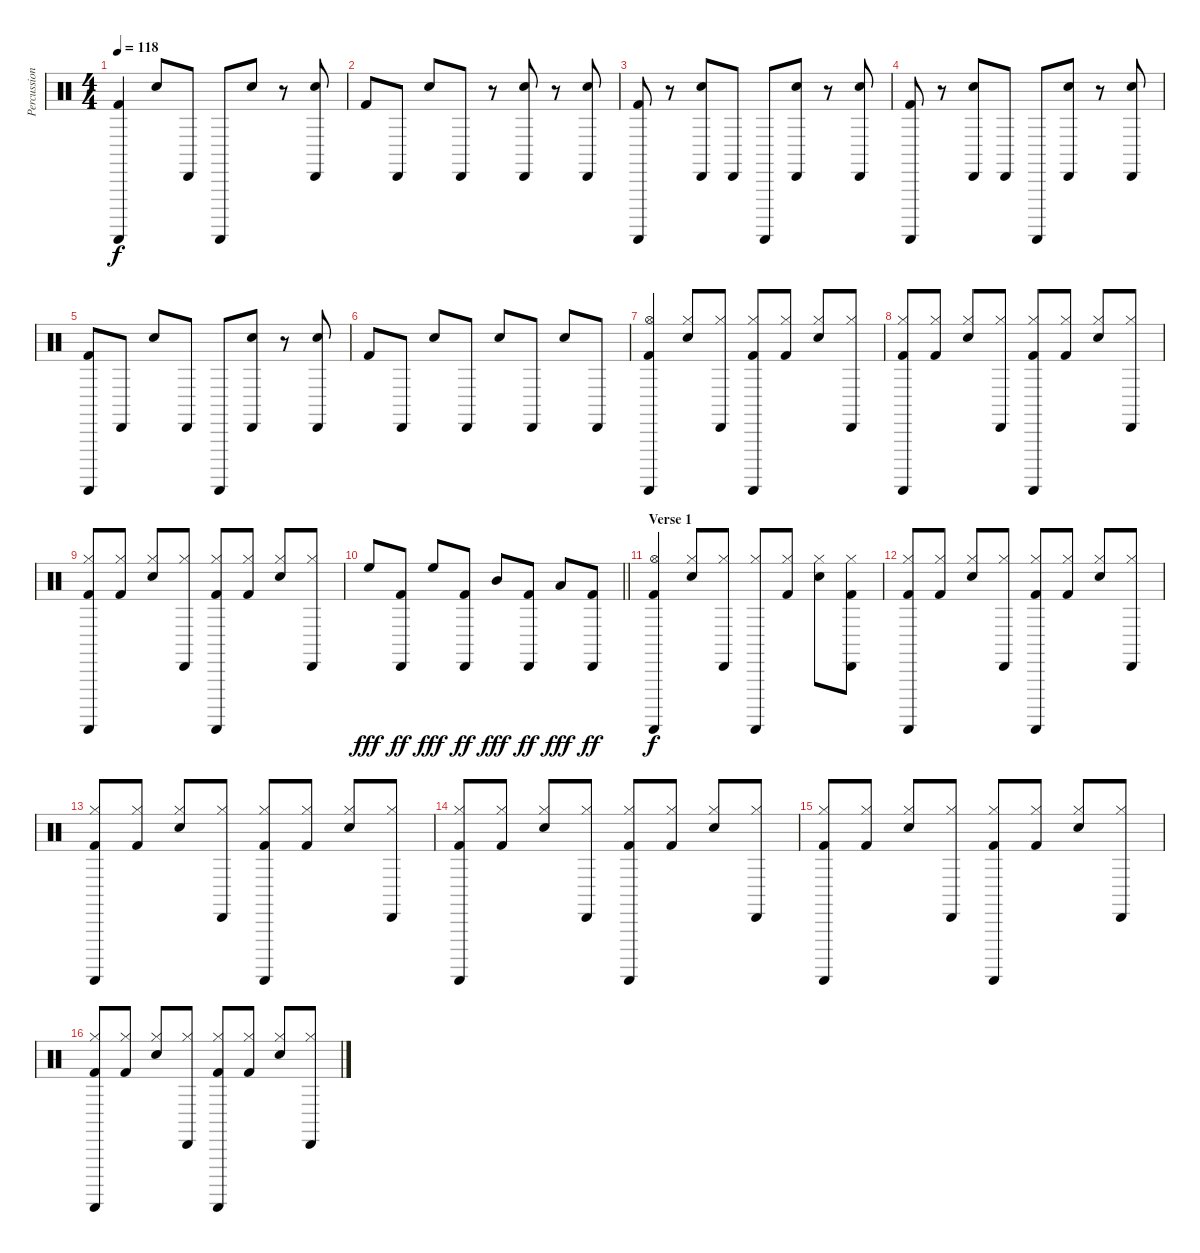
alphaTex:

\track ("Percussions" "Percussion") {instrument percussion}
\staff {score}
\articulation defaults
\ts (4 4)
\tempo 118
\clef neutral
\ks c
("Guiro (scrap-return)" "Kick (hit) 2").4{dy f} "Snare (hit) 2".8 "Cabasa (hit)".8 "Guiro (scrap-return)".8 "Snare (hit) 2".8 r.8 ("Cabasa (hit)" "Snare (hit) 2").8 |
"Kick (hit) 2".8 "Cabasa (hit)".8 "Snare (hit) 2".8 "Cabasa (hit)".8 r.8 ("Cabasa (hit)" "Snare (hit) 2").8 r.8 ("Cabasa (hit)" "Snare (hit) 2").8 |
("Guiro (scrap-return)" "Kick (hit) 2").8 r.8 ("Cabasa (hit)" "Snare (hit) 2").8 "Cabasa (hit)".8 "Guiro (scrap-return)".8 ("Cabasa (hit)" "Snare (hit) 2").8 r.8 ("Cabasa (hit)" "Snare (hit) 2").8 |
("Guiro (scrap-return)" "Kick (hit) 2").8 r.8 ("Cabasa (hit)" "Snare (hit) 2").8 "Cabasa (hit)".8 "Guiro (scrap-return)".8 ("Cabasa (hit)" "Snare (hit) 2").8 r.8 ("Cabasa (hit)" "Snare (hit) 2").8 |
("Guiro (scrap-return)" "Kick (hit) 2").8 "Cabasa (hit)".8 "Snare (hit) 2".8 "Cabasa (hit)".8 "Guiro (scrap-return)".8 ("Cabasa (hit)" "Snare (hit) 2").8 r.8 ("Cabasa (hit)" "Snare (hit) 2").8 |
"Kick (hit) 2".8 "Cabasa (hit)".8 "Snare (hit) 2".8 "Cabasa (hit)".8 "Snare (hit) 2".8 "Cabasa (hit)".8 "Snare (hit) 2".8 "Cabasa (hit)".8 |
("Guiro (scrap-return)" "Hi-Hat (open)" "Kick (hit) 2").4 ("Hi-Hat (closed)" "Snare (hit) 2").8 ("Cabasa (hit)" "Hi-Hat (closed)").8 ("Guiro (scrap-return)" "Hi-Hat (closed)" "Kick (hit) 2").8 ("Hi-Hat (closed)" "Kick (hit) 2").8 ("Hi-Hat (closed)" "Snare (hit) 2").8 ("Cabasa (hit)" "Hi-Hat (closed)").8 |
("Guiro (scrap-return)" "Hi-Hat (closed)" "Kick (hit) 2").8 ("Hi-Hat (closed)" "Kick (hit) 2").8 ("Hi-Hat (closed)" "Snare (hit) 2").8 ("Cabasa (hit)" "Hi-Hat (closed)").8 ("Guiro (scrap-return)" "Hi-Hat (closed)" "Kick (hit) 2").8 ("Hi-Hat (closed)" "Kick (hit) 2").8 ("Hi-Hat (closed)" "Snare (hit) 2").8 ("Cabasa (hit)" "Hi-Hat (closed)").8 |
("Guiro (scrap-return)" "Hi-Hat (closed)" "Kick (hit) 2").8 ("Hi-Hat (closed)" "Kick (hit) 2").8 ("Hi-Hat (closed)" "Snare (hit) 2").8 ("Cabasa (hit)" "Hi-Hat (closed)").8 ("Guiro (scrap-return)" "Hi-Hat (closed)" "Kick (hit) 2").8 ("Hi-Hat (closed)" "Kick (hit) 2").8 ("Hi-Hat (closed)" "Snare (hit) 2").8 ("Cabasa (hit)" "Hi-Hat (closed)").8 |
\barLineRight lightlight "High Floor Tom (hit)".8{dy fff}
("Cabasa (hit)" "Kick (hit) 2").8{dy ff} "High Floor Tom (hit)".8{dy fff} ("Cabasa (hit)" "Kick (hit) 2").8{dy ff} "Mid Tom (hit)".8{dy fff} ("Cabasa (hit)" "Kick (hit) 2").8{dy ff} "Low Tom (hit)".8{dy fff} ("Cabasa (hit)" "Kick (hit) 2").8{dy ff} |
\section ("" "Verse 1")
("Guiro (scrap-return)" "Hi-Hat (open)" "Kick (hit) 2").4{dy f} ("Hi-Hat (closed)" "Snare (hit) 2").8 ("Cabasa (hit)" "Hi-Hat (closed)").8 ("Guiro (scrap-return)" "Hi-Hat (closed)").8 ("Hi-Hat (closed)" "Kick (hit) 2").8 ("Hi-Hat (closed)" "Snare (hit) 2").8 ("Cabasa (hit)" "Hi-Hat (closed)" "Kick (hit) 2").8 |
("Guiro (scrap-return)" "Hi-Hat (closed)" "Kick (hit) 2").8 ("Hi-Hat (closed)" "Kick (hit) 2").8 ("Hi-Hat (closed)" "Snare (hit) 2").8 ("Cabasa (hit)" "Hi-Hat (closed)").8 ("Guiro (scrap-return)" "Hi-Hat (closed)" "Kick (hit) 2").8 ("Hi-Hat (closed)" "Kick (hit) 2").8 ("Hi-Hat (closed)" "Snare (hit) 2").8 ("Cabasa (hit)" "Hi-Hat (closed)").8 |
("Guiro (scrap-return)" "Hi-Hat (closed)" "Kick (hit) 2").8 ("Hi-Hat (closed)" "Kick (hit) 2").8 ("Hi-Hat (closed)" "Snare (hit) 2").8 ("Cabasa (hit)" "Hi-Hat (closed)").8 ("Guiro (scrap-return)" "Hi-Hat (closed)" "Kick (hit) 2").8 ("Hi-Hat (closed)" "Kick (hit) 2").8 ("Hi-Hat (closed)" "Snare (hit) 2").8 ("Cabasa (hit)" "Hi-Hat (closed)").8 |
("Guiro (scrap-return)" "Hi-Hat (closed)" "Kick (hit) 2").8 ("Hi-Hat (closed)" "Kick (hit) 2").8 ("Hi-Hat (closed)" "Snare (hit) 2").8 ("Cabasa (hit)" "Hi-Hat (closed)").8 ("Guiro (scrap-return)" "Hi-Hat (closed)" "Kick (hit) 2").8 ("Hi-Hat (closed)" "Kick (hit) 2").8 ("Hi-Hat (closed)" "Snare (hit) 2").8 ("Cabasa (hit)" "Hi-Hat (closed)").8 |
("Guiro (scrap-return)" "Hi-Hat (closed)" "Kick (hit) 2").8 ("Hi-Hat (closed)" "Kick (hit) 2").8 ("Hi-Hat (closed)" "Snare (hit) 2").8 ("Cabasa (hit)" "Hi-Hat (closed)").8 ("Guiro (scrap-return)" "Hi-Hat (closed)" "Kick (hit) 2").8 ("Hi-Hat (closed)" "Kick (hit) 2").8 ("Hi-Hat (closed)" "Snare (hit) 2").8 ("Cabasa (hit)" "Hi-Hat (closed)").8 |
("Guiro (scrap-return)" "Hi-Hat (closed)" "Kick (hit) 2").8 ("Hi-Hat (closed)" "Kick (hit) 2").8 ("Hi-Hat (closed)" "Snare (hit) 2").8 ("Cabasa (hit)" "Hi-Hat (closed)").8 ("Guiro (scrap-return)" "Hi-Hat (closed)" "Kick (hit) 2").8 ("Hi-Hat (closed)" "Kick (hit) 2").8 ("Hi-Hat (closed)" "Snare (hit) 2").8 ("Cabasa (hit)" "Hi-Hat (closed)").8
